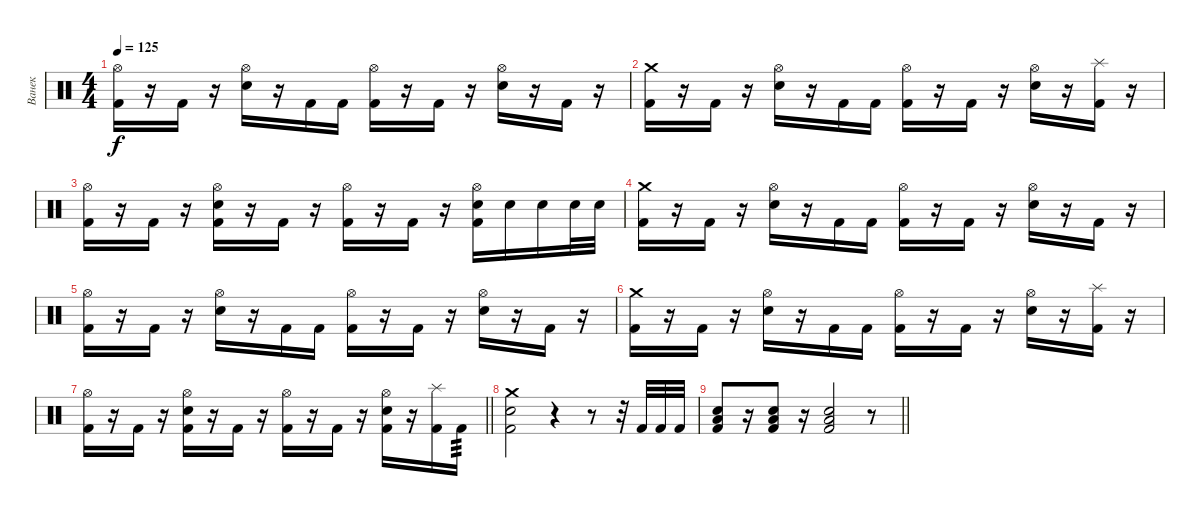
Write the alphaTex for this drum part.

\track ("Ванек" "Ванек") {instrument percussion}
\staff {score}
\articulation defaults
\ts (4 4)
\tempo 125
\clef neutral
\ks c
("Hi-Hat (open)" "Kick (hit) 2").16{dy f} r.16 "Kick (hit) 2".16 r.16 ("Hi-Hat (open)" "Snare (hit) 2").16 r.16 "Kick (hit) 2".16 "Kick (hit) 2".16 ("Hi-Hat (open)" "Kick (hit) 2").16 r.16 "Kick (hit) 2".16 r.16 ("Hi-Hat (open)" "Snare (hit) 2").16 r.16 "Kick (hit) 2".16 r.16 |
("Crash medium (hit)" "Kick (hit) 2").16 r.16 "Kick (hit) 2".16 r.16 ("Hi-Hat (open)" "Snare (hit) 2").16 r.16 "Kick (hit) 2".16 "Kick (hit) 2".16 ("Hi-Hat (open)" "Kick (hit) 2").16 r.16 "Kick (hit) 2".16 r.16 ("Hi-Hat (open)" "Snare (hit) 2").16 r.16 ("Splash (hit)" "Kick (hit) 2").16 r.16 |
("Hi-Hat (open)" "Kick (hit) 2").16 r.16 "Kick (hit) 2".16 r.16 ("Hi-Hat (open)" "Snare (hit) 2" "Kick (hit) 2").16 r.16 "Kick (hit) 2".16 r.16 ("Hi-Hat (open)" "Kick (hit) 2").16 r.16 "Kick (hit) 2".16 r.16 ("Hi-Hat (open)" "Snare (hit) 2" "Kick (hit) 2").16 "Snare (hit) 2".16 "Snare (hit) 2".16 "Snare (hit) 2".32 "Snare (hit) 2".32 |
("Crash medium (hit)" "Kick (hit) 2").16 r.16 "Kick (hit) 2".16 r.16 ("Hi-Hat (open)" "Snare (hit) 2").16 r.16 "Kick (hit) 2".16 "Kick (hit) 2".16 ("Hi-Hat (open)" "Kick (hit) 2").16 r.16 "Kick (hit) 2".16 r.16 ("Hi-Hat (open)" "Snare (hit) 2").16 r.16 "Kick (hit) 2".16 r.16 |
("Hi-Hat (open)" "Kick (hit) 2").16 r.16 "Kick (hit) 2".16 r.16 ("Hi-Hat (open)" "Snare (hit) 2").16 r.16 "Kick (hit) 2".16 "Kick (hit) 2".16 ("Hi-Hat (open)" "Kick (hit) 2").16 r.16 "Kick (hit) 2".16 r.16 ("Hi-Hat (open)" "Snare (hit) 2").16 r.16 "Kick (hit) 2".16 r.16 |
("Crash medium (hit)" "Kick (hit) 2").16 r.16 "Kick (hit) 2".16 r.16 ("Hi-Hat (open)" "Snare (hit) 2").16 r.16 "Kick (hit) 2".16 "Kick (hit) 2".16 ("Hi-Hat (open)" "Kick (hit) 2").16 r.16 "Kick (hit) 2".16 r.16 ("Hi-Hat (open)" "Snare (hit) 2").16 r.16 ("Splash (hit)" "Kick (hit) 2").16 r.16 |
\barLineRight lightlight
("Hi-Hat (open)" "Kick (hit) 2").16 r.16 "Kick (hit) 2".16 r.16 ("Hi-Hat (open)" "Snare (hit) 2" "Kick (hit) 2").16 r.16 "Kick (hit) 2".16 r.16 ("Hi-Hat (open)" "Kick (hit) 2").16 r.16 "Kick (hit) 2".16 r.16 ("Hi-Hat (open)" "Snare (hit) 2" "Kick (hit) 2").16 r.16 ("Splash (hit)" "Kick (hit) 2").16 "Kick (hit) 2".16{tp 3} |
("Crash medium (hit)" "Snare (hit) 2" "Kick (hit) 2").2 r.4 r.8 r.32 "Kick (hit) 2".32 "Kick (hit) 2".32 "Kick (hit) 2".32 |
\barLineRight lightlight
("Snare (hit) 2" "Low Floor Tom (hit)" "Kick (hit) 2").8 r.16 ("Snare (hit) 2" "Low Floor Tom (hit)" "Kick (hit) 2").8 r.16 ("Snare (hit) 2" "Low Floor Tom (hit)" "Kick (hit) 2").2 r.8
